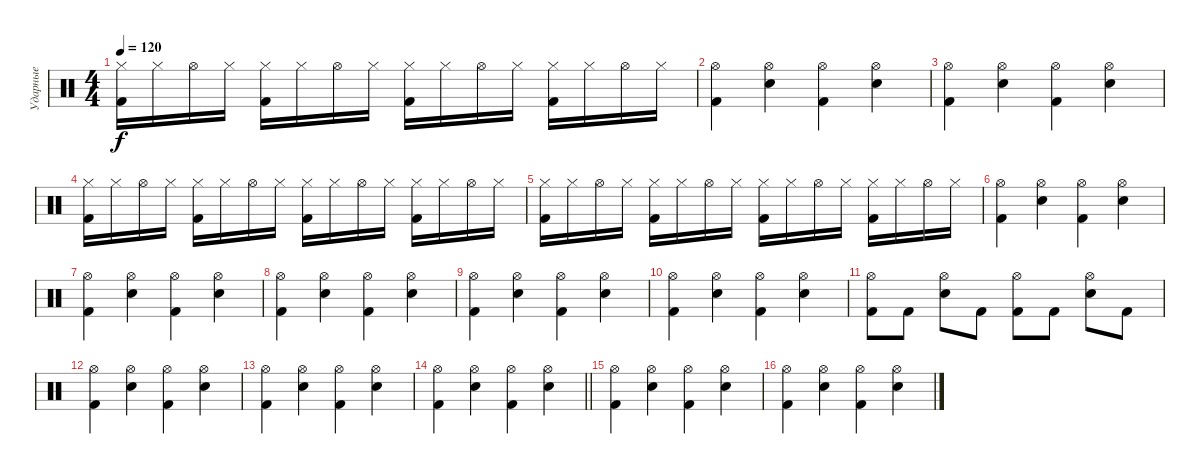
\track ("Ударные" "Ударные") {instrument percussion}
\staff {score}
\articulation defaults
\ts (4 4)
\tempo 120
\clef neutral
\ks c
("Hi-Hat (closed)" "Kick (hit) 2").16{dy f} "Hi-Hat (closed)".16 "Hi-Hat (open)".16 "Hi-Hat (closed)".16 ("Hi-Hat (closed)" "Kick (hit) 2").16 "Hi-Hat (closed)".16 "Hi-Hat (open)".16 "Hi-Hat (closed)".16 ("Hi-Hat (closed)" "Kick (hit) 2").16 "Hi-Hat (closed)".16 "Hi-Hat (open)".16 "Hi-Hat (closed)".16 ("Hi-Hat (closed)" "Kick (hit) 2").16 "Hi-Hat (closed)".16 "Hi-Hat (open)".16 "Hi-Hat (closed)".16 |
("Hi-Hat (open)" "Kick (hit) 2").4 ("Hi-Hat (open)" "Snare (hit) 2").4 ("Hi-Hat (open)" "Kick (hit) 2").4 ("Hi-Hat (open)" "Snare (hit) 2").4 |
("Hi-Hat (open)" "Kick (hit) 2").4 ("Hi-Hat (open)" "Snare (hit) 2").4 ("Hi-Hat (open)" "Kick (hit) 2").4 ("Hi-Hat (open)" "Snare (hit) 2").4 |
("Hi-Hat (closed)" "Kick (hit) 2").16 "Hi-Hat (closed)".16 "Hi-Hat (open)".16 "Hi-Hat (closed)".16 ("Hi-Hat (closed)" "Kick (hit) 2").16 "Hi-Hat (closed)".16 "Hi-Hat (open)".16 "Hi-Hat (closed)".16 ("Hi-Hat (closed)" "Kick (hit) 2").16 "Hi-Hat (closed)".16 "Hi-Hat (open)".16 "Hi-Hat (closed)".16 ("Hi-Hat (closed)" "Kick (hit) 2").16 "Hi-Hat (closed)".16 "Hi-Hat (open)".16 "Hi-Hat (closed)".16 |
("Hi-Hat (closed)" "Kick (hit) 2").16 "Hi-Hat (closed)".16 "Hi-Hat (open)".16 "Hi-Hat (closed)".16 ("Hi-Hat (closed)" "Kick (hit) 2").16 "Hi-Hat (closed)".16 "Hi-Hat (open)".16 "Hi-Hat (closed)".16 ("Hi-Hat (closed)" "Kick (hit) 2").16 "Hi-Hat (closed)".16 "Hi-Hat (open)".16 "Hi-Hat (closed)".16 ("Hi-Hat (closed)" "Kick (hit) 2").16 "Hi-Hat (closed)".16 "Hi-Hat (open)".16 "Hi-Hat (closed)".16 |
("Hi-Hat (open)" "Kick (hit) 2").4 ("Hi-Hat (open)" "Snare (hit) 2").4 ("Hi-Hat (open)" "Kick (hit) 2").4 ("Hi-Hat (open)" "Snare (hit) 2").4 |
("Hi-Hat (open)" "Kick (hit) 2").4 ("Hi-Hat (open)" "Snare (hit) 2").4 ("Hi-Hat (open)" "Kick (hit) 2").4 ("Hi-Hat (open)" "Snare (hit) 2").4 |
("Hi-Hat (open)" "Kick (hit) 2").4 ("Hi-Hat (open)" "Snare (hit) 2").4 ("Hi-Hat (open)" "Kick (hit) 2").4 ("Hi-Hat (open)" "Snare (hit) 2").4 |
("Hi-Hat (open)" "Kick (hit) 2").4 ("Hi-Hat (open)" "Snare (hit) 2").4 ("Hi-Hat (open)" "Kick (hit) 2").4 ("Hi-Hat (open)" "Snare (hit) 2").4 |
("Hi-Hat (open)" "Kick (hit) 2").4 ("Hi-Hat (open)" "Snare (hit) 2").4 ("Hi-Hat (open)" "Kick (hit) 2").4 ("Hi-Hat (open)" "Snare (hit) 2").4 |
("Hi-Hat (open)" "Kick (hit) 2").8 "Kick (hit) 2".8 ("Hi-Hat (open)" "Snare (hit) 2").8 "Kick (hit) 2".8 ("Hi-Hat (open)" "Kick (hit) 2").8 "Kick (hit) 2".8 ("Hi-Hat (open)" "Snare (hit) 2").8 "Kick (hit) 2".8 |
("Hi-Hat (open)" "Kick (hit) 2").4 ("Hi-Hat (open)" "Snare (hit) 2").4 ("Hi-Hat (open)" "Kick (hit) 2").4 ("Hi-Hat (open)" "Snare (hit) 2").4 |
("Hi-Hat (open)" "Kick (hit) 2").4 ("Hi-Hat (open)" "Snare (hit) 2").4 ("Hi-Hat (open)" "Kick (hit) 2").4 ("Hi-Hat (open)" "Snare (hit) 2").4 |
\barLineRight lightlight
("Hi-Hat (open)" "Kick (hit) 2").4 ("Hi-Hat (open)" "Snare (hit) 2").4 ("Hi-Hat (open)" "Kick (hit) 2").4 ("Hi-Hat (open)" "Snare (hit) 2").4 |
("Hi-Hat (open)" "Kick (hit) 2").4 ("Hi-Hat (open)" "Snare (hit) 2").4 ("Hi-Hat (open)" "Kick (hit) 2").4 ("Hi-Hat (open)" "Snare (hit) 2").4 |
("Hi-Hat (open)" "Kick (hit) 2").4 ("Hi-Hat (open)" "Snare (hit) 2").4 ("Hi-Hat (open)" "Kick (hit) 2").4 ("Hi-Hat (open)" "Snare (hit) 2").4
